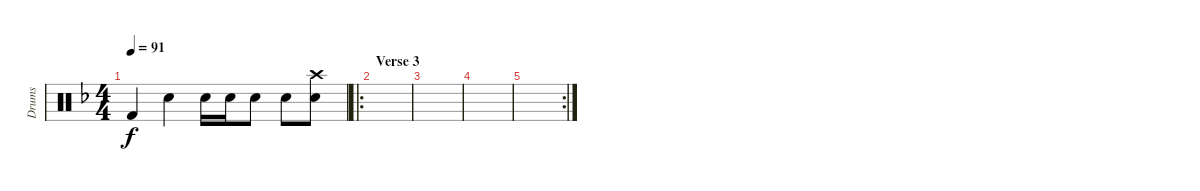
\track ("Drums" "Drums") {instrument percussion}
\staff {score}
\articulation defaults
\ts (4 4)
\tempo 91
\clef neutral
\ks f "Kick (hit) 2".4{dy f} "Electric Snare (hit)".4 "Snare (hit) 2".16 "Snare (hit) 2".16 "Snare (hit) 2".8 "Snare (hit) 2".8
("Crash high (hit)" "Snare (hit) 2").8 |
\ro
\section ("" "Verse 3")
|
|
|
\rc 2
